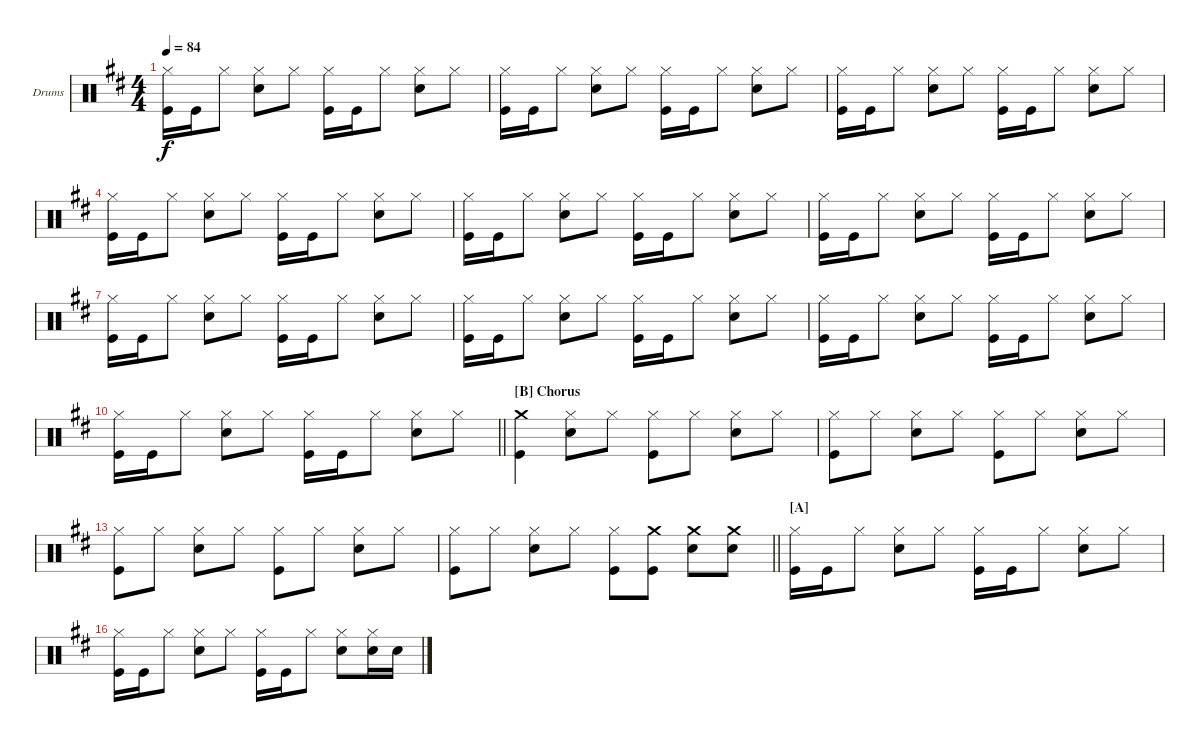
\bracketExtendMode nobrackets
\firstSystemTrackNameOrientation horizontal
\otherSystemsTrackNameOrientation horizontal
\defaultBarNumberDisplay FirstOfSystem
\track ("Drumkit" "Drums") {instrument percussion}
\staff {score}
\articulation defaults
\ts (4 4)
\tempo 84
\clef neutral
\ks d
("Kick (hit)" "Hi-Hat (closed)").16{dy f} "Kick (hit)".16 "Hi-Hat (closed)".8 ("Snare (hit) 2" "Hi-Hat (closed)").8 "Hi-Hat (closed)".8 ("Kick (hit)" "Hi-Hat (closed)").16 "Kick (hit)".16 "Hi-Hat (closed)".8 ("Snare (hit) 2" "Hi-Hat (closed)").8 "Hi-Hat (closed)".8 |
("Kick (hit)" "Hi-Hat (closed)").16 "Kick (hit)".16 "Hi-Hat (closed)".8 ("Snare (hit) 2" "Hi-Hat (closed)").8 "Hi-Hat (closed)".8 ("Kick (hit)" "Hi-Hat (closed)").16 "Kick (hit)".16 "Hi-Hat (closed)".8 ("Snare (hit) 2" "Hi-Hat (closed)").8 "Hi-Hat (closed)".8 |
("Kick (hit)" "Hi-Hat (closed)").16 "Kick (hit)".16 "Hi-Hat (closed)".8 ("Snare (hit) 2" "Hi-Hat (closed)").8 "Hi-Hat (closed)".8 ("Kick (hit)" "Hi-Hat (closed)").16 "Kick (hit)".16 "Hi-Hat (closed)".8 ("Snare (hit) 2" "Hi-Hat (closed)").8 "Hi-Hat (closed)".8 |
("Kick (hit)" "Hi-Hat (closed)").16 "Kick (hit)".16 "Hi-Hat (closed)".8 ("Snare (hit) 2" "Hi-Hat (closed)").8 "Hi-Hat (closed)".8 ("Kick (hit)" "Hi-Hat (closed)").16 "Kick (hit)".16 "Hi-Hat (closed)".8 ("Snare (hit) 2" "Hi-Hat (closed)").8 "Hi-Hat (closed)".8 |
("Kick (hit)" "Hi-Hat (closed)").16 "Kick (hit)".16 "Hi-Hat (closed)".8 ("Snare (hit) 2" "Hi-Hat (closed)").8 "Hi-Hat (closed)".8 ("Kick (hit)" "Hi-Hat (closed)").16 "Kick (hit)".16 "Hi-Hat (closed)".8 ("Snare (hit) 2" "Hi-Hat (closed)").8 "Hi-Hat (closed)".8 |
("Kick (hit)" "Hi-Hat (closed)").16 "Kick (hit)".16 "Hi-Hat (closed)".8 ("Snare (hit) 2" "Hi-Hat (closed)").8 "Hi-Hat (closed)".8 ("Kick (hit)" "Hi-Hat (closed)").16 "Kick (hit)".16 "Hi-Hat (closed)".8 ("Snare (hit) 2" "Hi-Hat (closed)").8 "Hi-Hat (closed)".8 |
("Kick (hit)" "Hi-Hat (closed)").16 "Kick (hit)".16 "Hi-Hat (closed)".8 ("Snare (hit) 2" "Hi-Hat (closed)").8 "Hi-Hat (closed)".8 ("Kick (hit)" "Hi-Hat (closed)").16 "Kick (hit)".16 "Hi-Hat (closed)".8 ("Snare (hit) 2" "Hi-Hat (closed)").8 "Hi-Hat (closed)".8 |
("Kick (hit)" "Hi-Hat (closed)").16 "Kick (hit)".16 "Hi-Hat (closed)".8 ("Snare (hit) 2" "Hi-Hat (closed)").8 "Hi-Hat (closed)".8 ("Kick (hit)" "Hi-Hat (closed)").16 "Kick (hit)".16 "Hi-Hat (closed)".8 ("Snare (hit) 2" "Hi-Hat (closed)").8 "Hi-Hat (closed)".8 |
("Kick (hit)" "Hi-Hat (closed)").16 "Kick (hit)".16 "Hi-Hat (closed)".8 ("Snare (hit) 2" "Hi-Hat (closed)").8 "Hi-Hat (closed)".8 ("Kick (hit)" "Hi-Hat (closed)").16 "Kick (hit)".16 "Hi-Hat (closed)".8 ("Snare (hit) 2" "Hi-Hat (closed)").8 "Hi-Hat (closed)".8 |
\barLineRight lightlight
("Kick (hit)" "Hi-Hat (closed)").16 "Kick (hit)".16 "Hi-Hat (closed)".8 ("Snare (hit) 2" "Hi-Hat (closed)").8 "Hi-Hat (closed)".8 ("Kick (hit)" "Hi-Hat (closed)").16 "Kick (hit)".16 "Hi-Hat (closed)".8 ("Snare (hit) 2" "Hi-Hat (closed)").8 "Hi-Hat (closed)".8 |
\section ("B" "Chorus")
("Kick (hit)" "Crash medium (hit)").4 ("Snare (hit) 2" "Hi-Hat (closed)").8 "Hi-Hat (closed)".8 ("Kick (hit)" "Hi-Hat (closed)").8 "Hi-Hat (closed)".8 ("Snare (hit) 2" "Hi-Hat (closed)").8 "Hi-Hat (closed)".8 |
("Kick (hit)" "Hi-Hat (closed)").8 "Hi-Hat (closed)".8 ("Snare (hit) 2" "Hi-Hat (closed)").8 "Hi-Hat (closed)".8 ("Kick (hit)" "Hi-Hat (closed)").8 "Hi-Hat (closed)".8 ("Snare (hit) 2" "Hi-Hat (closed)").8 "Hi-Hat (closed)".8 |
("Kick (hit)" "Hi-Hat (closed)").8 "Hi-Hat (closed)".8 ("Snare (hit) 2" "Hi-Hat (closed)").8 "Hi-Hat (closed)".8 ("Kick (hit)" "Hi-Hat (closed)").8 "Hi-Hat (closed)".8 ("Snare (hit) 2" "Hi-Hat (closed)").8 "Hi-Hat (closed)".8 |
\barLineRight lightlight
("Kick (hit)" "Hi-Hat (closed)").8 "Hi-Hat (closed)".8 ("Snare (hit) 2" "Hi-Hat (closed)").8 "Hi-Hat (closed)".8 ("Kick (hit)" "Hi-Hat (closed)").8 ("Kick (hit)" "Crash medium (hit)").8 ("Snare (hit) 2" "Crash medium (hit)").8 ("Snare (hit) 2" "Crash medium (hit)").8 |
\section ("A" "")
("Kick (hit)" "Hi-Hat (closed)").16 "Kick (hit)".16 "Hi-Hat (closed)".8 ("Snare (hit) 2" "Hi-Hat (closed)").8 "Hi-Hat (closed)".8 ("Kick (hit)" "Hi-Hat (closed)").16 "Kick (hit)".16 "Hi-Hat (closed)".8 ("Snare (hit) 2" "Hi-Hat (closed)").8 "Hi-Hat (closed)".8 |
("Kick (hit)" "Hi-Hat (closed)").16 "Kick (hit)".16 "Hi-Hat (closed)".8 ("Snare (hit) 2" "Hi-Hat (closed)").8 "Hi-Hat (closed)".8 ("Kick (hit)" "Hi-Hat (closed)").16 "Kick (hit)".16 "Hi-Hat (closed)".8 ("Snare (hit) 2" "Hi-Hat (closed)").8 ("Snare (hit) 2" "Hi-Hat (closed)").16 "Snare (hit) 2".16
